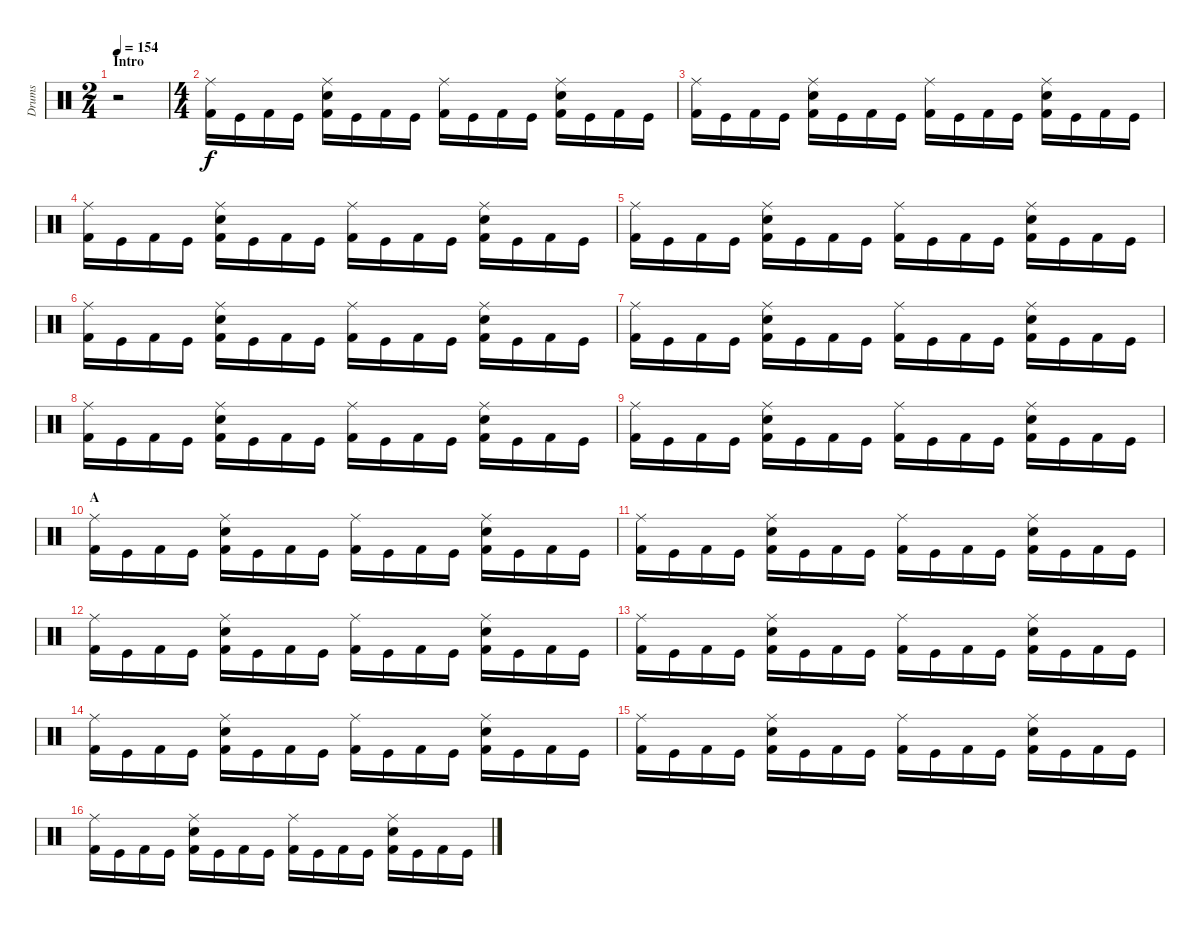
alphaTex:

\track ("Drums" "Drums") {instrument percussion}
\staff {score}
\articulation defaults
\ts (2 4)
\section ("" "Intro")
\tempo 154
\clef neutral
\ks c
r.2{dy f} |
\ts (4 4)
("Ride (middle)" "Kick (hit) 2").16 "Kick (hit)".16 "Kick (hit) 2".16 "Kick (hit)".16 ("Ride (middle)" "Electric Snare (hit)" "Kick (hit) 2").16 "Kick (hit)".16 "Kick (hit) 2".16 "Kick (hit)".16 ("Ride (middle)" "Kick (hit) 2").16 "Kick (hit)".16 "Kick (hit) 2".16 "Kick (hit)".16 ("Ride (middle)" "Electric Snare (hit)" "Kick (hit) 2").16 "Kick (hit)".16 "Kick (hit) 2".16 "Kick (hit)".16 |
("Ride (middle)" "Kick (hit) 2").16 "Kick (hit)".16 "Kick (hit) 2".16 "Kick (hit)".16 ("Ride (middle)" "Electric Snare (hit)" "Kick (hit) 2").16 "Kick (hit)".16 "Kick (hit) 2".16 "Kick (hit)".16 ("Ride (middle)" "Kick (hit) 2").16 "Kick (hit)".16 "Kick (hit) 2".16 "Kick (hit)".16 ("Ride (middle)" "Electric Snare (hit)" "Kick (hit) 2").16 "Kick (hit)".16 "Kick (hit) 2".16 "Kick (hit)".16 |
("Ride (middle)" "Kick (hit) 2").16 "Kick (hit)".16 "Kick (hit) 2".16 "Kick (hit)".16 ("Ride (middle)" "Electric Snare (hit)" "Kick (hit) 2").16 "Kick (hit)".16 "Kick (hit) 2".16 "Kick (hit)".16 ("Ride (middle)" "Kick (hit) 2").16 "Kick (hit)".16 "Kick (hit) 2".16 "Kick (hit)".16 ("Ride (middle)" "Electric Snare (hit)" "Kick (hit) 2").16 "Kick (hit)".16 "Kick (hit) 2".16 "Kick (hit)".16 |
("Ride (middle)" "Kick (hit) 2").16 "Kick (hit)".16 "Kick (hit) 2".16 "Kick (hit)".16 ("Ride (middle)" "Electric Snare (hit)" "Kick (hit) 2").16 "Kick (hit)".16 "Kick (hit) 2".16 "Kick (hit)".16 ("Ride (middle)" "Kick (hit) 2").16 "Kick (hit)".16 "Kick (hit) 2".16 "Kick (hit)".16 ("Ride (middle)" "Electric Snare (hit)" "Kick (hit) 2").16 "Kick (hit)".16 "Kick (hit) 2".16 "Kick (hit)".16 |
("Ride (middle)" "Kick (hit) 2").16 "Kick (hit)".16 "Kick (hit) 2".16 "Kick (hit)".16 ("Ride (middle)" "Electric Snare (hit)" "Kick (hit) 2").16 "Kick (hit)".16 "Kick (hit) 2".16 "Kick (hit)".16 ("Ride (middle)" "Kick (hit) 2").16 "Kick (hit)".16 "Kick (hit) 2".16 "Kick (hit)".16 ("Ride (middle)" "Electric Snare (hit)" "Kick (hit) 2").16 "Kick (hit)".16 "Kick (hit) 2".16 "Kick (hit)".16 |
("Ride (middle)" "Kick (hit) 2").16 "Kick (hit)".16 "Kick (hit) 2".16 "Kick (hit)".16 ("Ride (middle)" "Electric Snare (hit)" "Kick (hit) 2").16 "Kick (hit)".16 "Kick (hit) 2".16 "Kick (hit)".16 ("Ride (middle)" "Kick (hit) 2").16 "Kick (hit)".16 "Kick (hit) 2".16 "Kick (hit)".16 ("Ride (middle)" "Electric Snare (hit)" "Kick (hit) 2").16 "Kick (hit)".16 "Kick (hit) 2".16 "Kick (hit)".16 |
("Ride (middle)" "Kick (hit) 2").16 "Kick (hit)".16 "Kick (hit) 2".16 "Kick (hit)".16 ("Ride (middle)" "Electric Snare (hit)" "Kick (hit) 2").16 "Kick (hit)".16 "Kick (hit) 2".16 "Kick (hit)".16 ("Ride (middle)" "Kick (hit) 2").16 "Kick (hit)".16 "Kick (hit) 2".16 "Kick (hit)".16 ("Ride (middle)" "Electric Snare (hit)" "Kick (hit) 2").16 "Kick (hit)".16 "Kick (hit) 2".16 "Kick (hit)".16 |
("Ride (middle)" "Kick (hit) 2").16 "Kick (hit)".16 "Kick (hit) 2".16 "Kick (hit)".16 ("Ride (middle)" "Electric Snare (hit)" "Kick (hit) 2").16 "Kick (hit)".16 "Kick (hit) 2".16 "Kick (hit)".16 ("Ride (middle)" "Kick (hit) 2").16 "Kick (hit)".16 "Kick (hit) 2".16 "Kick (hit)".16 ("Ride (middle)" "Electric Snare (hit)" "Kick (hit) 2").16 "Kick (hit)".16 "Kick (hit) 2".16 "Kick (hit)".16 |
\section ("" "A")
("Ride (middle)" "Kick (hit) 2").16 "Kick (hit)".16 "Kick (hit) 2".16 "Kick (hit)".16 ("Ride (middle)" "Electric Snare (hit)" "Kick (hit) 2").16 "Kick (hit)".16 "Kick (hit) 2".16 "Kick (hit)".16 ("Ride (middle)" "Kick (hit) 2").16 "Kick (hit)".16 "Kick (hit) 2".16 "Kick (hit)".16 ("Ride (middle)" "Electric Snare (hit)" "Kick (hit) 2").16 "Kick (hit)".16 "Kick (hit) 2".16 "Kick (hit)".16 |
("Ride (middle)" "Kick (hit) 2").16 "Kick (hit)".16 "Kick (hit) 2".16 "Kick (hit)".16 ("Ride (middle)" "Electric Snare (hit)" "Kick (hit) 2").16 "Kick (hit)".16 "Kick (hit) 2".16 "Kick (hit)".16 ("Ride (middle)" "Kick (hit) 2").16 "Kick (hit)".16 "Kick (hit) 2".16 "Kick (hit)".16 ("Ride (middle)" "Electric Snare (hit)" "Kick (hit) 2").16 "Kick (hit)".16 "Kick (hit) 2".16 "Kick (hit)".16 |
("Ride (middle)" "Kick (hit) 2").16 "Kick (hit)".16 "Kick (hit) 2".16 "Kick (hit)".16 ("Ride (middle)" "Electric Snare (hit)" "Kick (hit) 2").16 "Kick (hit)".16 "Kick (hit) 2".16 "Kick (hit)".16 ("Ride (middle)" "Kick (hit) 2").16 "Kick (hit)".16 "Kick (hit) 2".16 "Kick (hit)".16 ("Ride (middle)" "Electric Snare (hit)" "Kick (hit) 2").16 "Kick (hit)".16 "Kick (hit) 2".16 "Kick (hit)".16 |
("Ride (middle)" "Kick (hit) 2").16 "Kick (hit)".16 "Kick (hit) 2".16 "Kick (hit)".16 ("Ride (middle)" "Electric Snare (hit)" "Kick (hit) 2").16 "Kick (hit)".16 "Kick (hit) 2".16 "Kick (hit)".16 ("Ride (middle)" "Kick (hit) 2").16 "Kick (hit)".16 "Kick (hit) 2".16 "Kick (hit)".16 ("Ride (middle)" "Electric Snare (hit)" "Kick (hit) 2").16 "Kick (hit)".16 "Kick (hit) 2".16 "Kick (hit)".16 |
("Ride (middle)" "Kick (hit) 2").16 "Kick (hit)".16 "Kick (hit) 2".16 "Kick (hit)".16 ("Ride (middle)" "Electric Snare (hit)" "Kick (hit) 2").16 "Kick (hit)".16 "Kick (hit) 2".16 "Kick (hit)".16 ("Ride (middle)" "Kick (hit) 2").16 "Kick (hit)".16 "Kick (hit) 2".16 "Kick (hit)".16 ("Ride (middle)" "Electric Snare (hit)" "Kick (hit) 2").16 "Kick (hit)".16 "Kick (hit) 2".16 "Kick (hit)".16 |
("Ride (middle)" "Kick (hit) 2").16 "Kick (hit)".16 "Kick (hit) 2".16 "Kick (hit)".16 ("Ride (middle)" "Electric Snare (hit)" "Kick (hit) 2").16 "Kick (hit)".16 "Kick (hit) 2".16 "Kick (hit)".16 ("Ride (middle)" "Kick (hit) 2").16 "Kick (hit)".16 "Kick (hit) 2".16 "Kick (hit)".16 ("Ride (middle)" "Electric Snare (hit)" "Kick (hit) 2").16 "Kick (hit)".16 "Kick (hit) 2".16 "Kick (hit)".16 |
("Ride (middle)" "Kick (hit) 2").16 "Kick (hit)".16 "Kick (hit) 2".16 "Kick (hit)".16 ("Ride (middle)" "Electric Snare (hit)" "Kick (hit) 2").16 "Kick (hit)".16 "Kick (hit) 2".16 "Kick (hit)".16 ("Ride (middle)" "Kick (hit) 2").16 "Kick (hit)".16 "Kick (hit) 2".16 "Kick (hit)".16 ("Ride (middle)" "Electric Snare (hit)" "Kick (hit) 2").16 "Kick (hit)".16 "Kick (hit) 2".16 "Kick (hit)".16
